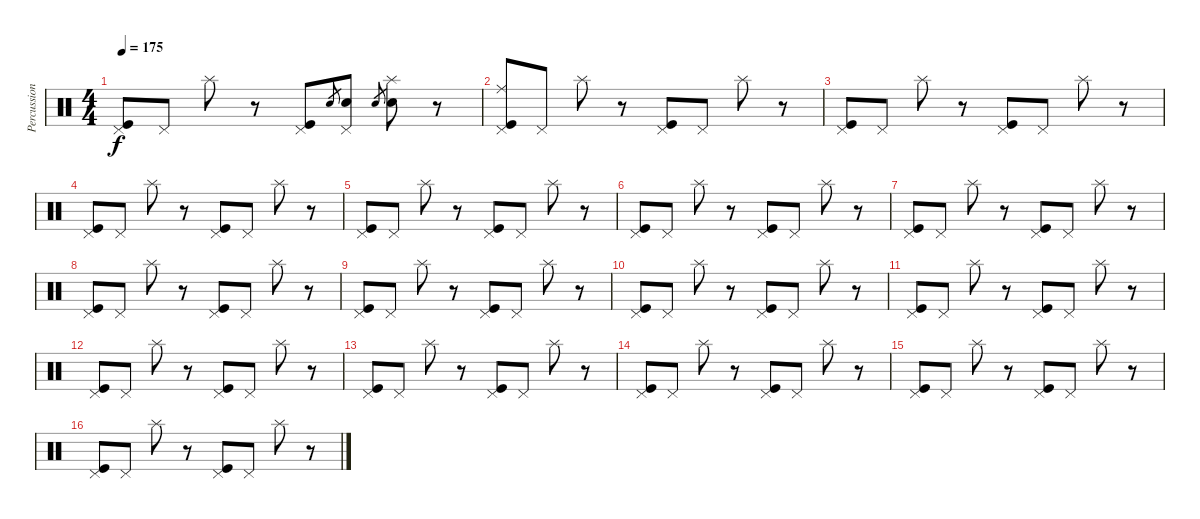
\track ("Percussions" "Percussion") {instrument percussion}
\staff {score}
\articulation defaults
\ts (4 4)
\tempo 175
\clef neutral
\ks c
("Pedal Hi-Hat (hit)" "Kick (hit)").8{dy f} "Pedal Hi-Hat (hit)".8 "Splash (hit)".8 r.8 ("Pedal Hi-Hat (hit)" "Kick (hit)").8 "Snare (hit) 2".8{gr} ("Pedal Hi-Hat (hit)" "Snare (hit) 2").8 "Snare (hit) 2".8{gr} ("Splash (hit)" "Snare (hit) 2").8 r.8 |
("Pedal Hi-Hat (hit)" "Ride (middle)" "Kick (hit)").8 "Pedal Hi-Hat (hit)".8 "Splash (hit)".8 r.8 ("Pedal Hi-Hat (hit)" "Kick (hit)").8 "Pedal Hi-Hat (hit)".8 "Splash (hit)".8 r.8 |
("Pedal Hi-Hat (hit)" "Kick (hit)").8 "Pedal Hi-Hat (hit)".8 "Splash (hit)".8 r.8 ("Pedal Hi-Hat (hit)" "Kick (hit)").8 "Pedal Hi-Hat (hit)".8 "Splash (hit)".8 r.8 |
("Pedal Hi-Hat (hit)" "Kick (hit)").8 "Pedal Hi-Hat (hit)".8 "Splash (hit)".8 r.8 ("Pedal Hi-Hat (hit)" "Kick (hit)").8 "Pedal Hi-Hat (hit)".8 "Splash (hit)".8 r.8 |
("Pedal Hi-Hat (hit)" "Kick (hit)").8 "Pedal Hi-Hat (hit)".8 "Splash (hit)".8 r.8 ("Pedal Hi-Hat (hit)" "Kick (hit)").8 "Pedal Hi-Hat (hit)".8 "Splash (hit)".8 r.8 |
("Pedal Hi-Hat (hit)" "Kick (hit)").8 "Pedal Hi-Hat (hit)".8 "Splash (hit)".8 r.8 ("Pedal Hi-Hat (hit)" "Kick (hit)").8 "Pedal Hi-Hat (hit)".8 "Splash (hit)".8 r.8 |
("Pedal Hi-Hat (hit)" "Kick (hit)").8 "Pedal Hi-Hat (hit)".8 "Splash (hit)".8 r.8 ("Pedal Hi-Hat (hit)" "Kick (hit)").8 "Pedal Hi-Hat (hit)".8 "Splash (hit)".8 r.8 |
("Pedal Hi-Hat (hit)" "Kick (hit)").8 "Pedal Hi-Hat (hit)".8 "Splash (hit)".8 r.8 ("Pedal Hi-Hat (hit)" "Kick (hit)").8 "Pedal Hi-Hat (hit)".8 "Splash (hit)".8 r.8 |
("Pedal Hi-Hat (hit)" "Kick (hit)").8 "Pedal Hi-Hat (hit)".8 "Splash (hit)".8 r.8 ("Pedal Hi-Hat (hit)" "Kick (hit)").8 "Pedal Hi-Hat (hit)".8 "Splash (hit)".8 r.8 |
("Pedal Hi-Hat (hit)" "Kick (hit)").8 "Pedal Hi-Hat (hit)".8 "Splash (hit)".8 r.8 ("Pedal Hi-Hat (hit)" "Kick (hit)").8 "Pedal Hi-Hat (hit)".8 "Splash (hit)".8 r.8 |
("Pedal Hi-Hat (hit)" "Kick (hit)").8 "Pedal Hi-Hat (hit)".8 "Splash (hit)".8 r.8 ("Pedal Hi-Hat (hit)" "Kick (hit)").8 "Pedal Hi-Hat (hit)".8 "Splash (hit)".8 r.8 |
("Pedal Hi-Hat (hit)" "Kick (hit)").8 "Pedal Hi-Hat (hit)".8 "Splash (hit)".8 r.8 ("Pedal Hi-Hat (hit)" "Kick (hit)").8 "Pedal Hi-Hat (hit)".8 "Splash (hit)".8 r.8 |
("Pedal Hi-Hat (hit)" "Kick (hit)").8 "Pedal Hi-Hat (hit)".8 "Splash (hit)".8 r.8 ("Pedal Hi-Hat (hit)" "Kick (hit)").8 "Pedal Hi-Hat (hit)".8 "Splash (hit)".8 r.8 |
("Pedal Hi-Hat (hit)" "Kick (hit)").8 "Pedal Hi-Hat (hit)".8 "Splash (hit)".8 r.8 ("Pedal Hi-Hat (hit)" "Kick (hit)").8 "Pedal Hi-Hat (hit)".8 "Splash (hit)".8 r.8 |
("Pedal Hi-Hat (hit)" "Kick (hit)").8 "Pedal Hi-Hat (hit)".8 "Splash (hit)".8 r.8 ("Pedal Hi-Hat (hit)" "Kick (hit)").8 "Pedal Hi-Hat (hit)".8 "Splash (hit)".8 r.8 |
("Pedal Hi-Hat (hit)" "Kick (hit)").8 "Pedal Hi-Hat (hit)".8 "Splash (hit)".8 r.8 ("Pedal Hi-Hat (hit)" "Kick (hit)").8 "Pedal Hi-Hat (hit)".8 "Splash (hit)".8 r.8
